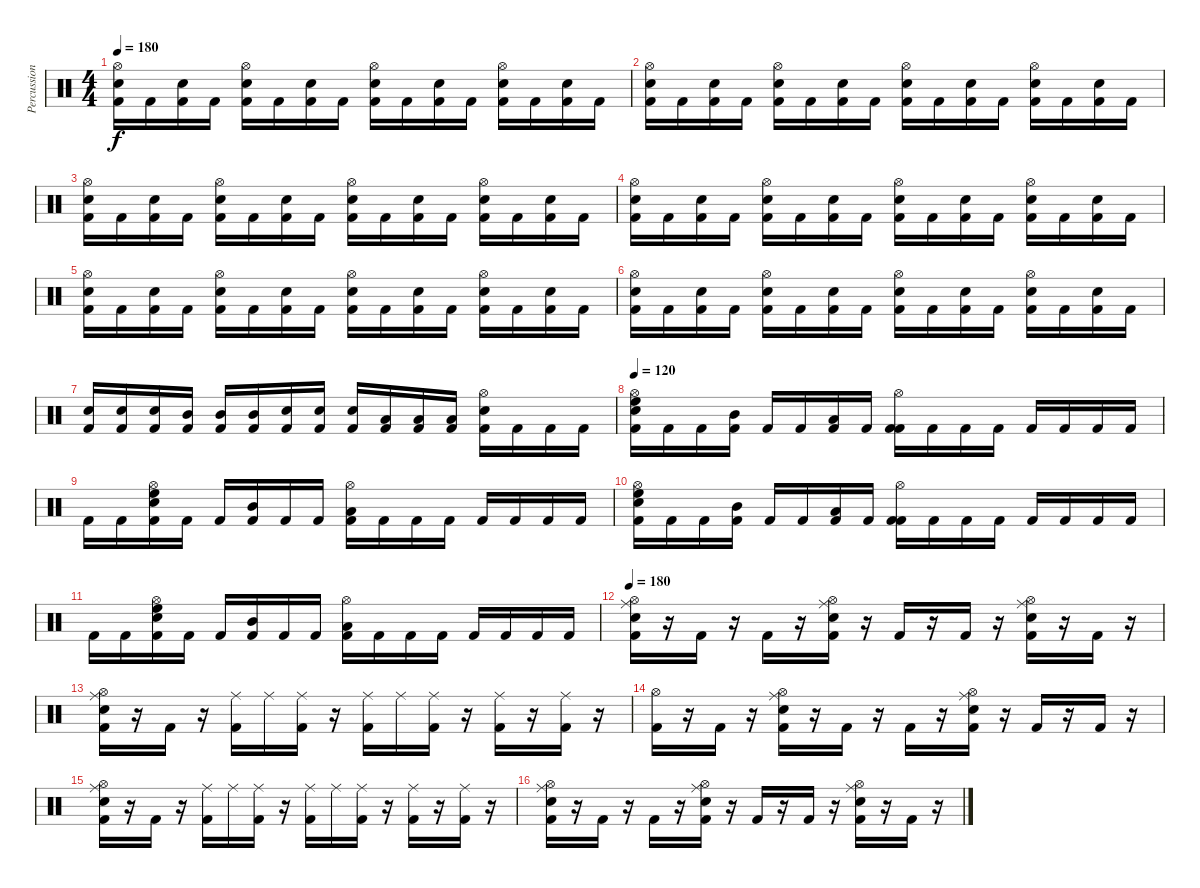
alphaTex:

\track ("Percussion" "Percussion") {instrument percussion}
\staff {score}
\articulation defaults
\ts (4 4)
\tempo 180
\clef neutral
\ks c
("Hi-Hat (open)" "Snare (hit) 2" "Kick (hit) 2").16{dy f} "Kick (hit) 2".16 ("Snare (hit) 2" "Kick (hit) 2").16 "Kick (hit) 2".16 ("Hi-Hat (open)" "Snare (hit) 2" "Kick (hit) 2").16 "Kick (hit) 2".16 ("Snare (hit) 2" "Kick (hit) 2").16 "Kick (hit) 2".16 ("Hi-Hat (open)" "Snare (hit) 2" "Kick (hit) 2").16 "Kick (hit) 2".16 ("Snare (hit) 2" "Kick (hit) 2").16 "Kick (hit) 2".16 ("Hi-Hat (open)" "Snare (hit) 2" "Kick (hit) 2").16 "Kick (hit) 2".16 ("Snare (hit) 2" "Kick (hit) 2").16 "Kick (hit) 2".16 |
("Hi-Hat (open)" "Snare (hit) 2" "Kick (hit) 2").16 "Kick (hit) 2".16 ("Snare (hit) 2" "Kick (hit) 2").16 "Kick (hit) 2".16 ("Hi-Hat (open)" "Snare (hit) 2" "Kick (hit) 2").16 "Kick (hit) 2".16 ("Snare (hit) 2" "Kick (hit) 2").16 "Kick (hit) 2".16 ("Hi-Hat (open)" "Snare (hit) 2" "Kick (hit) 2").16 "Kick (hit) 2".16 ("Snare (hit) 2" "Kick (hit) 2").16 "Kick (hit) 2".16 ("Hi-Hat (open)" "Snare (hit) 2" "Kick (hit) 2").16 "Kick (hit) 2".16 ("Snare (hit) 2" "Kick (hit) 2").16 "Kick (hit) 2".16 |
("Hi-Hat (open)" "Snare (hit) 2" "Kick (hit) 2").16 "Kick (hit) 2".16 ("Snare (hit) 2" "Kick (hit) 2").16 "Kick (hit) 2".16 ("Hi-Hat (open)" "Snare (hit) 2" "Kick (hit) 2").16 "Kick (hit) 2".16 ("Snare (hit) 2" "Kick (hit) 2").16 "Kick (hit) 2".16 ("Hi-Hat (open)" "Snare (hit) 2" "Kick (hit) 2").16 "Kick (hit) 2".16 ("Snare (hit) 2" "Kick (hit) 2").16 "Kick (hit) 2".16 ("Hi-Hat (open)" "Snare (hit) 2" "Kick (hit) 2").16 "Kick (hit) 2".16 ("Snare (hit) 2" "Kick (hit) 2").16 "Kick (hit) 2".16 |
("Hi-Hat (open)" "Snare (hit) 2" "Kick (hit) 2").16 "Kick (hit) 2".16 ("Snare (hit) 2" "Kick (hit) 2").16 "Kick (hit) 2".16 ("Hi-Hat (open)" "Snare (hit) 2" "Kick (hit) 2").16 "Kick (hit) 2".16 ("Snare (hit) 2" "Kick (hit) 2").16 "Kick (hit) 2".16 ("Hi-Hat (open)" "Snare (hit) 2" "Kick (hit) 2").16 "Kick (hit) 2".16 ("Snare (hit) 2" "Kick (hit) 2").16 "Kick (hit) 2".16 ("Hi-Hat (open)" "Snare (hit) 2" "Kick (hit) 2").16 "Kick (hit) 2".16 ("Snare (hit) 2" "Kick (hit) 2").16 "Kick (hit) 2".16 |
("Hi-Hat (open)" "Snare (hit) 2" "Kick (hit) 2").16 "Kick (hit) 2".16 ("Snare (hit) 2" "Kick (hit) 2").16 "Kick (hit) 2".16 ("Hi-Hat (open)" "Snare (hit) 2" "Kick (hit) 2").16 "Kick (hit) 2".16 ("Snare (hit) 2" "Kick (hit) 2").16 "Kick (hit) 2".16 ("Hi-Hat (open)" "Snare (hit) 2" "Kick (hit) 2").16 "Kick (hit) 2".16 ("Snare (hit) 2" "Kick (hit) 2").16 "Kick (hit) 2".16 ("Hi-Hat (open)" "Snare (hit) 2" "Kick (hit) 2").16 "Kick (hit) 2".16 ("Snare (hit) 2" "Kick (hit) 2").16 "Kick (hit) 2".16 |
("Hi-Hat (open)" "Snare (hit) 2" "Kick (hit) 2").16 "Kick (hit) 2".16 ("Snare (hit) 2" "Kick (hit) 2").16 "Kick (hit) 2".16 ("Hi-Hat (open)" "Snare (hit) 2" "Kick (hit) 2").16 "Kick (hit) 2".16 ("Snare (hit) 2" "Kick (hit) 2").16 "Kick (hit) 2".16 ("Hi-Hat (open)" "Snare (hit) 2" "Kick (hit) 2").16 "Kick (hit) 2".16 ("Snare (hit) 2" "Kick (hit) 2").16 "Kick (hit) 2".16 ("Hi-Hat (open)" "Snare (hit) 2" "Kick (hit) 2").16 "Kick (hit) 2".16 ("Snare (hit) 2" "Kick (hit) 2").16 "Kick (hit) 2".16 |
("Snare (hit) 2" "Kick (hit) 2").16 ("Snare (hit) 2" "Kick (hit) 2").16 ("Snare (hit) 2" "Kick (hit) 2").16 ("Mid Tom (hit)" "Kick (hit) 2").16 ("Mid Tom (hit)" "Kick (hit) 2").16 ("Mid Tom (hit)" "Kick (hit) 2").16 ("Snare (hit) 2" "Kick (hit) 2").16 ("Snare (hit) 2" "Kick (hit) 2").16 ("Snare (hit) 2" "Kick (hit) 2").16 ("Low Tom (hit)" "Kick (hit) 2").16 ("Low Tom (hit)" "Kick (hit) 2").16 ("Low Tom (hit)" "Kick (hit) 2").16 ("Hi-Hat (open)" "Snare (hit) 2" "Kick (hit) 2").16 "Kick (hit) 2".16 "Kick (hit) 2".16 "Kick (hit) 2".16 |
\tempo 120
("High Floor Tom (hit)" "Hi-Hat (open)" "Snare (hit) 2" "Kick (hit) 2").16 "Kick (hit) 2".16 "Kick (hit) 2".16 ("Mid Tom (hit)" "Kick (hit) 2").16 "Kick (hit) 2".16 "Kick (hit) 2".16 ("Low Tom (hit)" "Kick (hit) 2").16 "Kick (hit) 2".16 ("Hi-Hat (open)" "Kick (hit) 2" "Kick (hit) 2").16 "Kick (hit) 2".16 "Kick (hit) 2".16 "Kick (hit) 2".16 "Kick (hit) 2".16 "Kick (hit) 2".16 "Kick (hit) 2".16 "Kick (hit) 2".16 |
"Kick (hit) 2".16 "Kick (hit) 2".16 ("High Floor Tom (hit)" "Hi-Hat (open)" "Snare (hit) 2" "Kick (hit) 2").16 "Kick (hit) 2".16 "Kick (hit) 2".16 ("Mid Tom (hit)" "Kick (hit) 2").16 "Kick (hit) 2".16 "Kick (hit) 2".16 ("Low Tom (hit)" "Hi-Hat (open)" "Kick (hit) 2").16 "Kick (hit) 2".16 "Kick (hit) 2".16 "Kick (hit) 2".16 "Kick (hit) 2".16 "Kick (hit) 2".16 "Kick (hit) 2".16 "Kick (hit) 2".16 |
("High Floor Tom (hit)" "Hi-Hat (open)" "Snare (hit) 2" "Kick (hit) 2").16 "Kick (hit) 2".16 "Kick (hit) 2".16 ("Mid Tom (hit)" "Kick (hit) 2").16 "Kick (hit) 2".16 "Kick (hit) 2".16 ("Low Tom (hit)" "Kick (hit) 2").16 "Kick (hit) 2".16 ("Hi-Hat (open)" "Kick (hit) 2" "Kick (hit) 2").16 "Kick (hit) 2".16 "Kick (hit) 2".16 "Kick (hit) 2".16 "Kick (hit) 2".16 "Kick (hit) 2".16 "Kick (hit) 2".16 "Kick (hit) 2".16 |
"Kick (hit) 2".16 "Kick (hit) 2".16 ("High Floor Tom (hit)" "Hi-Hat (open)" "Snare (hit) 2" "Kick (hit) 2").16 "Kick (hit) 2".16 "Kick (hit) 2".16 ("Mid Tom (hit)" "Kick (hit) 2").16 "Kick (hit) 2".16 "Kick (hit) 2".16 ("Low Tom (hit)" "Hi-Hat (open)" "Kick (hit) 2").16 "Kick (hit) 2".16 "Kick (hit) 2".16 "Kick (hit) 2".16 "Kick (hit) 2".16 "Kick (hit) 2".16 "Kick (hit) 2".16 "Kick (hit) 2".16 |
\tempo 180
("Hi-Hat (open)" "Ride (middle)" "Snare (hit) 2" "Kick (hit) 2").16 r.16 "Kick (hit) 2".16 r.16 "Kick (hit) 2".16 r.16 ("Hi-Hat (open)" "Ride (middle)" "Snare (hit) 2" "Kick (hit) 2").16 r.16 "Kick (hit) 2".16 r.16 "Kick (hit) 2".16 r.16 ("Hi-Hat (open)" "Ride (middle)" "Snare (hit) 2" "Kick (hit) 2").16 r.16 "Kick (hit) 2".16 r.16 |
("Hi-Hat (open)" "Ride (middle)" "Snare (hit) 2" "Kick (hit) 2").16 r.16 "Kick (hit) 2".16 r.16 ("Ride (middle)" "Kick (hit) 2").16 "Ride (middle)".16 ("Ride (middle)" "Kick (hit) 2").16 r.16 ("Ride (middle)" "Kick (hit) 2").16 "Ride (middle)".16 ("Ride (middle)" "Kick (hit) 2").16 r.16 ("Ride (middle)" "Kick (hit) 2").16 r.16 ("Ride (middle)" "Kick (hit) 2").16 r.16 |
("Hi-Hat (open)" "Kick (hit) 2").16 r.16 "Kick (hit) 2".16 r.16 ("Hi-Hat (open)" "Ride (middle)" "Snare (hit) 2" "Kick (hit) 2").16 r.16 "Kick (hit) 2".16 r.16 "Kick (hit) 2".16 r.16 ("Hi-Hat (open)" "Ride (middle)" "Snare (hit) 2" "Kick (hit) 2").16 r.16 "Kick (hit) 2".16 r.16 "Kick (hit) 2".16 r.16 |
("Hi-Hat (open)" "Ride (middle)" "Snare (hit) 2" "Kick (hit) 2").16 r.16 "Kick (hit) 2".16 r.16 ("Ride (middle)" "Kick (hit) 2").16 "Ride (middle)".16 ("Ride (middle)" "Kick (hit) 2").16 r.16 ("Ride (middle)" "Kick (hit) 2").16 "Ride (middle)".16 ("Ride (middle)" "Kick (hit) 2").16 r.16 ("Ride (middle)" "Kick (hit) 2").16 r.16 ("Ride (middle)" "Kick (hit) 2").16 r.16 |
("Hi-Hat (open)" "Ride (middle)" "Snare (hit) 2" "Kick (hit) 2").16 r.16 "Kick (hit) 2".16 r.16 "Kick (hit) 2".16 r.16 ("Hi-Hat (open)" "Ride (middle)" "Snare (hit) 2" "Kick (hit) 2").16 r.16 "Kick (hit) 2".16 r.16 "Kick (hit) 2".16 r.16 ("Hi-Hat (open)" "Ride (middle)" "Snare (hit) 2" "Kick (hit) 2").16 r.16 "Kick (hit) 2".16 r.16
